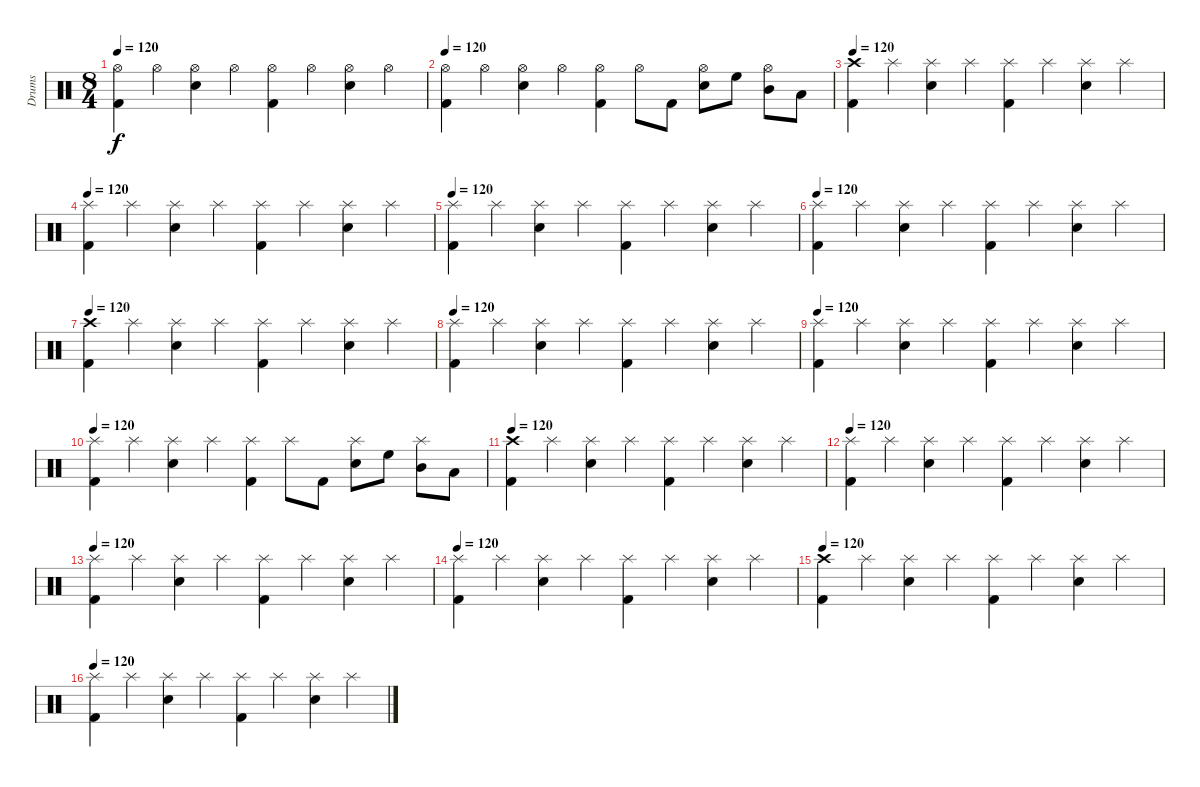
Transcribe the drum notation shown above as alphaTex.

\track ("Drums" "Drums") {instrument percussion}
\staff {score}
\articulation defaults
\ts (8 4)
\tempo 120
\clef neutral
\ks c
("Kick (hit) 2" "Hi-Hat (open)").4{dy f} "Hi-Hat (open)".4 ("Electric Snare (hit)" "Hi-Hat (open)").4 "Hi-Hat (open)".4 ("Kick (hit) 2" "Hi-Hat (open)").4 "Hi-Hat (open)".4 ("Electric Snare (hit)" "Hi-Hat (open)").4 "Hi-Hat (open)".4 |
\tempo 120
("Kick (hit) 2" "Hi-Hat (open)").4 "Hi-Hat (open)".4 ("Electric Snare (hit)" "Hi-Hat (open)").4 "Hi-Hat (open)".4 ("Kick (hit) 2" "Hi-Hat (open)").4 "Hi-Hat (open)".8 "Kick (hit) 2".8 ("Electric Snare (hit)" "Hi-Hat (open)").8 "High Floor Tom (hit)".8 ("Hi-Hat (open)" "Mid Tom (hit)").8 "Low Tom (hit)".8 |
\tempo 120
("Kick (hit) 2" "Crash high (hit)").4 "Splash (hit)".4 ("Electric Snare (hit)" "Splash (hit)").4 "Splash (hit)".4 ("Kick (hit) 2" "Splash (hit)").4 "Splash (hit)".4 ("Electric Snare (hit)" "Splash (hit)").4 "Splash (hit)".4 |
\tempo 120
("Kick (hit) 2" "Splash (hit)").4 "Splash (hit)".4 ("Electric Snare (hit)" "Splash (hit)").4 "Splash (hit)".4 ("Kick (hit) 2" "Splash (hit)").4 "Splash (hit)".4 ("Electric Snare (hit)" "Splash (hit)").4 "Splash (hit)".4 |
\tempo 120
("Kick (hit) 2" "Splash (hit)").4 "Splash (hit)".4 ("Electric Snare (hit)" "Splash (hit)").4 "Splash (hit)".4 ("Kick (hit) 2" "Splash (hit)").4 "Splash (hit)".4 ("Electric Snare (hit)" "Splash (hit)").4 "Splash (hit)".4 |
\tempo 120
("Kick (hit) 2" "Splash (hit)").4 "Splash (hit)".4 ("Electric Snare (hit)" "Splash (hit)").4 "Splash (hit)".4 ("Kick (hit) 2" "Splash (hit)").4 "Splash (hit)".4 ("Electric Snare (hit)" "Splash (hit)").4 "Splash (hit)".4 |
\tempo 120
("Kick (hit) 2" "Crash high (hit)").4 "Splash (hit)".4 ("Electric Snare (hit)" "Splash (hit)").4 "Splash (hit)".4 ("Kick (hit) 2" "Splash (hit)").4 "Splash (hit)".4 ("Electric Snare (hit)" "Splash (hit)").4 "Splash (hit)".4 |
\tempo 120
("Kick (hit) 2" "Splash (hit)").4 "Splash (hit)".4 ("Electric Snare (hit)" "Splash (hit)").4 "Splash (hit)".4 ("Kick (hit) 2" "Splash (hit)").4 "Splash (hit)".4 ("Electric Snare (hit)" "Splash (hit)").4 "Splash (hit)".4 |
\tempo 120
("Kick (hit) 2" "Splash (hit)").4 "Splash (hit)".4 ("Electric Snare (hit)" "Splash (hit)").4 "Splash (hit)".4 ("Kick (hit) 2" "Splash (hit)").4 "Splash (hit)".4 ("Electric Snare (hit)" "Splash (hit)").4 "Splash (hit)".4 |
\tempo 120
("Kick (hit) 2" "Splash (hit)").4 "Splash (hit)".4 ("Electric Snare (hit)" "Splash (hit)").4 "Splash (hit)".4 ("Kick (hit) 2" "Splash (hit)").4 "Splash (hit)".8 "Kick (hit) 2".8 ("Electric Snare (hit)" "Splash (hit)").8 "High Floor Tom (hit)".8 ("Mid Tom (hit)" "Splash (hit)").8 "Low Tom (hit)".8 |
\tempo 120
("Kick (hit) 2" "Crash high (hit)").4 "Splash (hit)".4 ("Electric Snare (hit)" "Splash (hit)").4 "Splash (hit)".4 ("Kick (hit) 2" "Splash (hit)").4 "Splash (hit)".4 ("Electric Snare (hit)" "Splash (hit)").4 "Splash (hit)".4 |
\tempo 120
("Kick (hit) 2" "Splash (hit)").4 "Splash (hit)".4 ("Electric Snare (hit)" "Splash (hit)").4 "Splash (hit)".4 ("Kick (hit) 2" "Splash (hit)").4 "Splash (hit)".4 ("Electric Snare (hit)" "Splash (hit)").4 "Splash (hit)".4 |
\tempo 120
("Kick (hit) 2" "Splash (hit)").4 "Splash (hit)".4 ("Electric Snare (hit)" "Splash (hit)").4 "Splash (hit)".4 ("Kick (hit) 2" "Splash (hit)").4 "Splash (hit)".4 ("Electric Snare (hit)" "Splash (hit)").4 "Splash (hit)".4 |
\tempo 120
("Kick (hit) 2" "Splash (hit)").4 "Splash (hit)".4 ("Electric Snare (hit)" "Splash (hit)").4 "Splash (hit)".4 ("Kick (hit) 2" "Splash (hit)").4 "Splash (hit)".4 ("Electric Snare (hit)" "Splash (hit)").4 "Splash (hit)".4 |
\tempo 120
("Kick (hit) 2" "Crash high (hit)").4 "Splash (hit)".4 ("Electric Snare (hit)" "Splash (hit)").4 "Splash (hit)".4 ("Kick (hit) 2" "Splash (hit)").4 "Splash (hit)".4 ("Electric Snare (hit)" "Splash (hit)").4 "Splash (hit)".4 |
\tempo 120
("Kick (hit) 2" "Splash (hit)").4 "Splash (hit)".4 ("Electric Snare (hit)" "Splash (hit)").4 "Splash (hit)".4 ("Kick (hit) 2" "Splash (hit)").4 "Splash (hit)".4 ("Electric Snare (hit)" "Splash (hit)").4 "Splash (hit)".4
